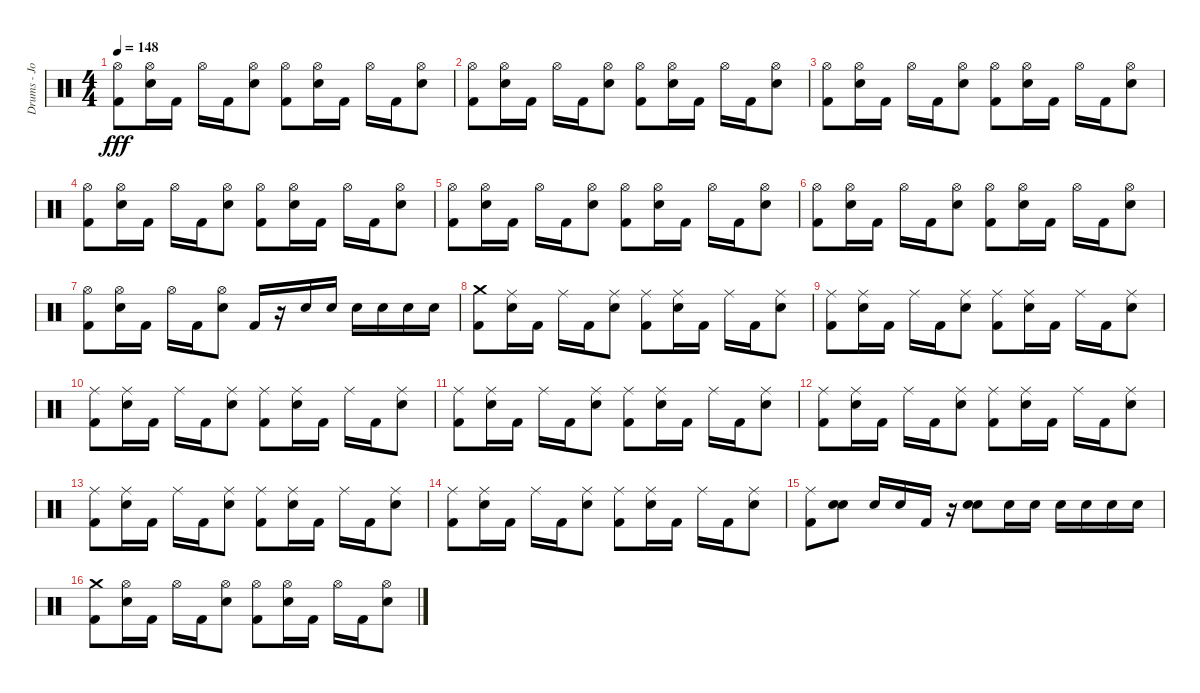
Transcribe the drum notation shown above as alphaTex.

\track ("Drums - Jordan" "Drums - Jo") {instrument percussion}
\staff {score}
\articulation defaults
\ts (4 4)
\tempo 148
\clef neutral
\ks c
("Hi-Hat (open)" "Kick (hit) 2").8{dy fff} ("Hi-Hat (open)" "Electric Snare (hit)").16 "Kick (hit) 2".16 "Hi-Hat (open)".16 "Kick (hit) 2".16 ("Hi-Hat (open)" "Electric Snare (hit)").8 ("Hi-Hat (open)" "Kick (hit) 2").8 ("Hi-Hat (open)" "Electric Snare (hit)").16 "Kick (hit) 2".16 "Hi-Hat (open)".16 "Kick (hit) 2".16 ("Hi-Hat (open)" "Electric Snare (hit)").8 |
("Hi-Hat (open)" "Kick (hit) 2").8 ("Hi-Hat (open)" "Electric Snare (hit)").16 "Kick (hit) 2".16 "Hi-Hat (open)".16 "Kick (hit) 2".16 ("Hi-Hat (open)" "Electric Snare (hit)").8 ("Hi-Hat (open)" "Kick (hit) 2").8 ("Hi-Hat (open)" "Electric Snare (hit)").16 "Kick (hit) 2".16 "Hi-Hat (open)".16 "Kick (hit) 2".16 ("Hi-Hat (open)" "Electric Snare (hit)").8 |
("Hi-Hat (open)" "Kick (hit) 2").8 ("Hi-Hat (open)" "Electric Snare (hit)").16 "Kick (hit) 2".16 "Hi-Hat (open)".16 "Kick (hit) 2".16 ("Hi-Hat (open)" "Electric Snare (hit)").8 ("Hi-Hat (open)" "Kick (hit) 2").8 ("Hi-Hat (open)" "Electric Snare (hit)").16 "Kick (hit) 2".16 "Hi-Hat (open)".16 "Kick (hit) 2".16 ("Hi-Hat (open)" "Electric Snare (hit)").8 |
("Hi-Hat (open)" "Kick (hit) 2").8 ("Hi-Hat (open)" "Electric Snare (hit)").16 "Kick (hit) 2".16 "Hi-Hat (open)".16 "Kick (hit) 2".16 ("Hi-Hat (open)" "Electric Snare (hit)").8 ("Hi-Hat (open)" "Kick (hit) 2").8 ("Hi-Hat (open)" "Electric Snare (hit)").16 "Kick (hit) 2".16 "Hi-Hat (open)".16 "Kick (hit) 2".16 ("Hi-Hat (open)" "Electric Snare (hit)").8 |
("Hi-Hat (open)" "Kick (hit) 2").8 ("Hi-Hat (open)" "Electric Snare (hit)").16 "Kick (hit) 2".16 "Hi-Hat (open)".16 "Kick (hit) 2".16 ("Hi-Hat (open)" "Electric Snare (hit)").8 ("Hi-Hat (open)" "Kick (hit) 2").8 ("Hi-Hat (open)" "Electric Snare (hit)").16 "Kick (hit) 2".16 "Hi-Hat (open)".16 "Kick (hit) 2".16 ("Hi-Hat (open)" "Electric Snare (hit)").8 |
("Hi-Hat (open)" "Kick (hit) 2").8 ("Hi-Hat (open)" "Electric Snare (hit)").16 "Kick (hit) 2".16 "Hi-Hat (open)".16 "Kick (hit) 2".16 ("Hi-Hat (open)" "Electric Snare (hit)").8 ("Hi-Hat (open)" "Kick (hit) 2").8 ("Hi-Hat (open)" "Electric Snare (hit)").16 "Kick (hit) 2".16 "Hi-Hat (open)".16 "Kick (hit) 2".16 ("Hi-Hat (open)" "Electric Snare (hit)").8 |
("Hi-Hat (open)" "Kick (hit) 2").8 ("Hi-Hat (open)" "Electric Snare (hit)").16 "Kick (hit) 2".16 "Hi-Hat (open)".16 "Kick (hit) 2".16 ("Hi-Hat (open)" "Electric Snare (hit)").8 "Kick (hit) 2".16 r.16 "Electric Snare (hit)".16 "Electric Snare (hit)".16 "Electric Snare (hit)".16 "Electric Snare (hit)".16 "Electric Snare (hit)".16 "Electric Snare (hit)".16 |
("Kick (hit) 2" "Crash medium (hit)").8 ("Electric Snare (hit)" "Ride (middle)").16 "Kick (hit) 2".16 "Ride (middle)".16 "Kick (hit) 2".16 ("Electric Snare (hit)" "Ride (middle)").8 ("Kick (hit) 2" "Ride (middle)").8 ("Electric Snare (hit)" "Ride (middle)").16 "Kick (hit) 2".16 "Ride (middle)".16 "Kick (hit) 2".16 ("Electric Snare (hit)" "Ride (middle)").8 |
("Kick (hit) 2" "Ride (middle)").8 ("Electric Snare (hit)" "Ride (middle)").16 "Kick (hit) 2".16 "Ride (middle)".16 "Kick (hit) 2".16 ("Electric Snare (hit)" "Ride (middle)").8 ("Kick (hit) 2" "Ride (middle)").8 ("Electric Snare (hit)" "Ride (middle)").16 "Kick (hit) 2".16 "Ride (middle)".16 "Kick (hit) 2".16 ("Electric Snare (hit)" "Ride (middle)").8 |
("Kick (hit) 2" "Ride (middle)").8 ("Electric Snare (hit)" "Ride (middle)").16 "Kick (hit) 2".16 "Ride (middle)".16 "Kick (hit) 2".16 ("Electric Snare (hit)" "Ride (middle)").8 ("Kick (hit) 2" "Ride (middle)").8 ("Electric Snare (hit)" "Ride (middle)").16 "Kick (hit) 2".16 "Ride (middle)".16 "Kick (hit) 2".16 ("Electric Snare (hit)" "Ride (middle)").8 |
("Kick (hit) 2" "Ride (middle)").8 ("Electric Snare (hit)" "Ride (middle)").16 "Kick (hit) 2".16 "Ride (middle)".16 "Kick (hit) 2".16 ("Electric Snare (hit)" "Ride (middle)").8 ("Kick (hit) 2" "Ride (middle)").8 ("Electric Snare (hit)" "Ride (middle)").16 "Kick (hit) 2".16 "Ride (middle)".16 "Kick (hit) 2".16 ("Electric Snare (hit)" "Ride (middle)").8 |
("Kick (hit) 2" "Ride (middle)").8 ("Electric Snare (hit)" "Ride (middle)").16 "Kick (hit) 2".16 "Ride (middle)".16 "Kick (hit) 2".16 ("Electric Snare (hit)" "Ride (middle)").8 ("Kick (hit) 2" "Ride (middle)").8 ("Electric Snare (hit)" "Ride (middle)").16 "Kick (hit) 2".16 "Ride (middle)".16 "Kick (hit) 2".16 ("Electric Snare (hit)" "Ride (middle)").8 |
("Kick (hit) 2" "Ride (middle)").8 ("Electric Snare (hit)" "Ride (middle)").16 "Kick (hit) 2".16 "Ride (middle)".16 "Kick (hit) 2".16 ("Electric Snare (hit)" "Ride (middle)").8 ("Kick (hit) 2" "Ride (middle)").8 ("Electric Snare (hit)" "Ride (middle)").16 "Kick (hit) 2".16 "Ride (middle)".16 "Kick (hit) 2".16 ("Electric Snare (hit)" "Ride (middle)").8 |
("Kick (hit) 2" "Ride (middle)").8 ("Electric Snare (hit)" "Ride (middle)").16 "Kick (hit) 2".16 "Ride (middle)".16 "Kick (hit) 2".16 ("Electric Snare (hit)" "Ride (middle)").8 ("Kick (hit) 2" "Ride (middle)").8 ("Electric Snare (hit)" "Ride (middle)").16 "Kick (hit) 2".16 "Ride (middle)".16 "Kick (hit) 2".16 ("Electric Snare (hit)" "Ride (middle)").8 |
("Kick (hit) 2" "Ride (middle)").8 ("Electric Snare (hit)" "Electric Snare (hit)").8 "Electric Snare (hit)".16 "Electric Snare (hit)".16 "Kick (hit) 2".16 r.16 ("Electric Snare (hit)" "Electric Snare (hit)").8 "Electric Snare (hit)".16 "Electric Snare (hit)".16 "Electric Snare (hit)".16 "Electric Snare (hit)".16 "Electric Snare (hit)".16 "Electric Snare (hit)".16 |
("Kick (hit) 2" "Crash medium (hit)").8 ("Hi-Hat (open)" "Electric Snare (hit)").16 "Kick (hit) 2".16 "Hi-Hat (open)".16 "Kick (hit) 2".16 ("Hi-Hat (open)" "Electric Snare (hit)").8 ("Hi-Hat (open)" "Kick (hit) 2").8 ("Hi-Hat (open)" "Electric Snare (hit)").16 "Kick (hit) 2".16 "Hi-Hat (open)".16 "Kick (hit) 2".16 ("Hi-Hat (open)" "Electric Snare (hit)").8
